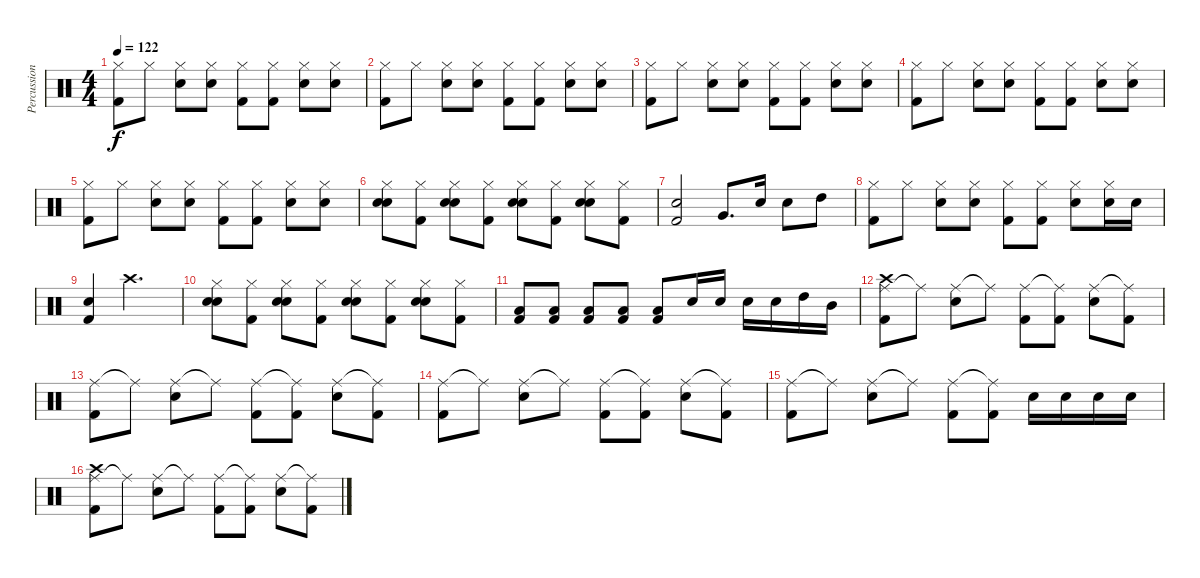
\track ("Percussion" "Percussion") {instrument percussion}
\staff {score}
\articulation defaults
\ts (4 4)
\tempo 122
\clef neutral
\ks c
("Hi-Hat (closed)" "Kick (hit) 2").8{dy f} "Hi-Hat (closed)".8 ("Hi-Hat (closed)" "Snare (hit) 2").8 ("Hi-Hat (closed)" "Snare (hit) 2").8 ("Hi-Hat (closed)" "Kick (hit) 2").8 ("Hi-Hat (closed)" "Kick (hit) 2").8 ("Hi-Hat (closed)" "Snare (hit) 2").8 ("Hi-Hat (closed)" "Snare (hit) 2").8 |
("Hi-Hat (closed)" "Kick (hit) 2").8 "Hi-Hat (closed)".8 ("Hi-Hat (closed)" "Snare (hit) 2").8 ("Hi-Hat (closed)" "Snare (hit) 2").8 ("Hi-Hat (closed)" "Kick (hit) 2").8 ("Hi-Hat (closed)" "Kick (hit) 2").8 ("Hi-Hat (closed)" "Snare (hit) 2").8 ("Hi-Hat (closed)" "Snare (hit) 2").8 |
("Hi-Hat (closed)" "Kick (hit) 2").8 "Hi-Hat (closed)".8 ("Hi-Hat (closed)" "Snare (hit) 2").8 ("Hi-Hat (closed)" "Snare (hit) 2").8 ("Hi-Hat (closed)" "Kick (hit) 2").8 ("Hi-Hat (closed)" "Kick (hit) 2").8 ("Hi-Hat (closed)" "Snare (hit) 2").8 ("Hi-Hat (closed)" "Snare (hit) 2").8 |
("Hi-Hat (closed)" "Kick (hit) 2").8 "Hi-Hat (closed)".8 ("Hi-Hat (closed)" "Snare (hit) 2").8 ("Hi-Hat (closed)" "Snare (hit) 2").8 ("Hi-Hat (closed)" "Kick (hit) 2").8 ("Hi-Hat (closed)" "Kick (hit) 2").8 ("Hi-Hat (closed)" "Snare (hit) 2").8 ("Hi-Hat (closed)" "Snare (hit) 2").8 |
("Hi-Hat (closed)" "Kick (hit) 2").8 "Hi-Hat (closed)".8 ("Hi-Hat (closed)" "Snare (hit) 2").8 ("Hi-Hat (closed)" "Snare (hit) 2").8 ("Hi-Hat (closed)" "Kick (hit) 2").8 ("Hi-Hat (closed)" "Kick (hit) 2").8 ("Hi-Hat (closed)" "Snare (hit) 2").8 ("Hi-Hat (closed)" "Snare (hit) 2").8 |
("Hi-Hat (closed)" "Snare (hit) 2" "Snare (hit) 2").8 ("Hi-Hat (closed)" "Kick (hit) 2").8 ("Hi-Hat (closed)" "Snare (hit) 2" "Snare (hit) 2").8 ("Hi-Hat (closed)" "Kick (hit) 2").8 ("Hi-Hat (closed)" "Snare (hit) 2" "Snare (hit) 2").8 ("Hi-Hat (closed)" "Kick (hit) 2").8 ("Hi-Hat (closed)" "Snare (hit) 2" "Snare (hit) 2").8 ("Hi-Hat (closed)" "Kick (hit) 2").8 |
("Snare (hit) 2" "Kick (hit) 2").2 "Very Low Tom (hit)".8{d} "Snare (hit) 2".16 "Snare (hit) 2".8 "High Tom (hit)".8 |
("Hi-Hat (closed)" "Kick (hit) 2").8 "Hi-Hat (closed)".8 ("Hi-Hat (closed)" "Snare (hit) 2").8 ("Hi-Hat (closed)" "Snare (hit) 2").8 ("Hi-Hat (closed)" "Kick (hit) 2").8 ("Hi-Hat (closed)" "Kick (hit) 2").8 ("Hi-Hat (closed)" "Snare (hit) 2").8 ("Hi-Hat (closed)" "Snare (hit) 2").16 "Snare (hit) 2".16 |
("Snare (hit) 2" "Kick (hit) 2").4 "Crash high (hit)".2{d} |
("Hi-Hat (closed)" "Snare (hit) 2" "Snare (hit) 2").8 ("Hi-Hat (closed)" "Kick (hit) 2").8 ("Hi-Hat (closed)" "Snare (hit) 2" "Snare (hit) 2").8 ("Hi-Hat (closed)" "Kick (hit) 2").8 ("Hi-Hat (closed)" "Snare (hit) 2" "Snare (hit) 2").8 ("Hi-Hat (closed)" "Kick (hit) 2").8 ("Hi-Hat (closed)" "Snare (hit) 2" "Snare (hit) 2").8 ("Hi-Hat (closed)" "Kick (hit) 2").8 |
("Low Floor Tom (hit)" "Kick (hit) 2").8 ("Low Floor Tom (hit)" "Kick (hit) 2").8 ("Low Floor Tom (hit)" "Kick (hit) 2").8 ("Low Floor Tom (hit)" "Kick (hit) 2").8 ("Low Floor Tom (hit)" "Kick (hit) 2").8 "Snare (hit) 2".16 "Snare (hit) 2".16 "Snare (hit) 2".16 "Snare (hit) 2".16 "High Tom (hit)".16 "Mid Tom (hit)".16 |
("Ride (middle)" "Crash high (hit)" "Kick (hit) 2").8 "Ride (middle)"{t}.8 ("Ride (middle)" "Snare (hit) 2").8 "Ride (middle)"{t}.8 ("Ride (middle)" "Kick (hit) 2").8 ("Ride (middle)"{t} "Kick (hit) 2").8 ("Ride (middle)" "Snare (hit) 2").8 ("Ride (middle)"{t} "Kick (hit) 2").8 |
("Ride (middle)" "Kick (hit) 2").8 "Ride (middle)"{t}.8 ("Ride (middle)" "Snare (hit) 2").8 "Ride (middle)"{t}.8 ("Ride (middle)" "Kick (hit) 2").8 ("Ride (middle)"{t} "Kick (hit) 2").8 ("Ride (middle)" "Snare (hit) 2").8 ("Ride (middle)"{t} "Kick (hit) 2").8 |
("Ride (middle)" "Kick (hit) 2").8 "Ride (middle)"{t}.8 ("Ride (middle)" "Snare (hit) 2").8 "Ride (middle)"{t}.8 ("Ride (middle)" "Kick (hit) 2").8 ("Ride (middle)"{t} "Kick (hit) 2").8 ("Ride (middle)" "Snare (hit) 2").8 ("Ride (middle)"{t} "Kick (hit) 2").8 |
("Ride (middle)" "Kick (hit) 2").8 "Ride (middle)"{t}.8 ("Ride (middle)" "Snare (hit) 2").8 "Ride (middle)"{t}.8 ("Ride (middle)" "Kick (hit) 2").8 ("Ride (middle)"{t} "Kick (hit) 2").8 "Snare (hit) 2".16 "Snare (hit) 2".16 "Snare (hit) 2".16 "Snare (hit) 2".16 |
("Ride (middle)" "Crash high (hit)" "Kick (hit) 2").8 "Ride (middle)"{t}.8 ("Ride (middle)" "Snare (hit) 2").8 "Ride (middle)"{t}.8 ("Ride (middle)" "Kick (hit) 2").8 ("Ride (middle)"{t} "Kick (hit) 2").8 ("Ride (middle)" "Snare (hit) 2").8 ("Ride (middle)"{t} "Kick (hit) 2").8
